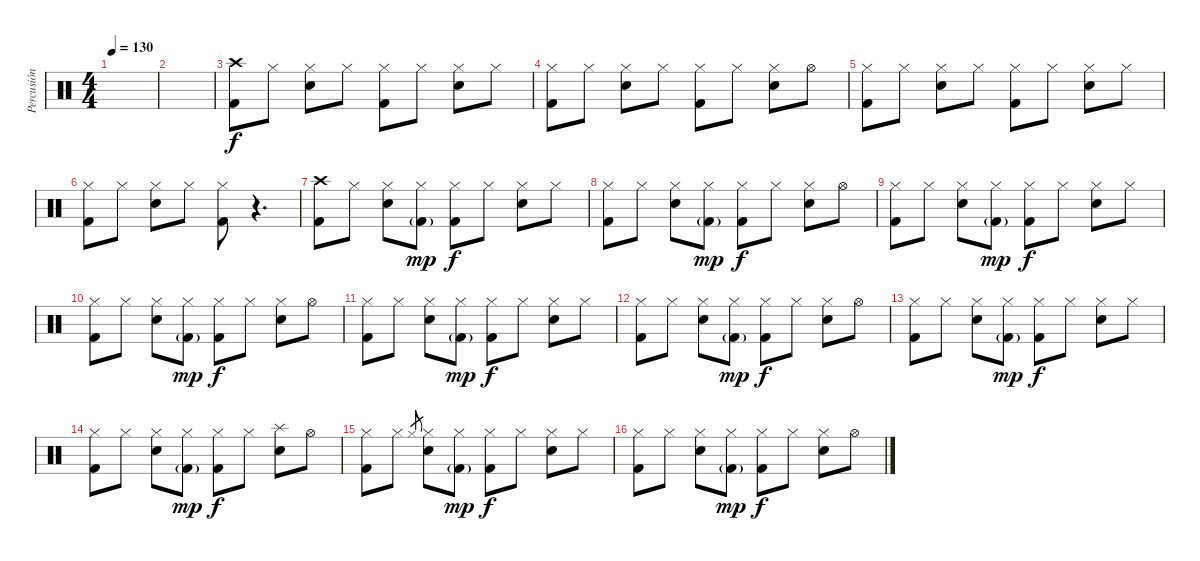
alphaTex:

\track ("Percusión" "Percusión") {instrument percussion}
\staff {score}
\articulation defaults
\ts (4 4)
\tempo 130
\clef neutral
\ks c
|
|
("Crash high (hit)" "Kick (hit) 2").8 "Hi-Hat (closed)".8 ("Hi-Hat (closed)" "Snare (hit) 2").8 "Hi-Hat (closed)".8 ("Hi-Hat (closed)" "Kick (hit) 2").8 "Hi-Hat (closed)".8 ("Hi-Hat (closed)" "Snare (hit) 2").8 "Hi-Hat (closed)".8 |
("Hi-Hat (closed)" "Kick (hit) 2").8 "Hi-Hat (closed)".8 ("Hi-Hat (closed)" "Snare (hit) 2").8 "Hi-Hat (closed)".8 ("Hi-Hat (closed)" "Kick (hit) 2").8 "Hi-Hat (closed)".8 ("Hi-Hat (closed)" "Snare (hit) 2").8 "Hi-Hat (open)".8 |
("Hi-Hat (closed)" "Kick (hit) 2").8 "Hi-Hat (closed)".8 ("Hi-Hat (closed)" "Snare (hit) 2").8 "Hi-Hat (closed)".8 ("Hi-Hat (closed)" "Kick (hit) 2").8 "Hi-Hat (closed)".8 ("Hi-Hat (closed)" "Snare (hit) 2").8 "Hi-Hat (closed)".8 |
("Hi-Hat (closed)" "Kick (hit) 2").8 "Hi-Hat (closed)".8 ("Hi-Hat (closed)" "Snare (hit) 2").8 "Hi-Hat (closed)".8 ("Hi-Hat (closed)" "Kick (hit) 2").8 r.4{d} |
("Crash high (hit)" "Kick (hit) 2").8 "Hi-Hat (closed)".8 ("Hi-Hat (closed)" "Snare (hit) 2").8 ("Hi-Hat (closed)" "Kick (hit) 2"{g}).8{dy mp} ("Hi-Hat (closed)" "Kick (hit) 2").8{dy f} "Hi-Hat (closed)".8 ("Hi-Hat (closed)" "Snare (hit) 2").8 "Hi-Hat (closed)".8 |
("Hi-Hat (closed)" "Kick (hit) 2").8 "Hi-Hat (closed)".8 ("Hi-Hat (closed)" "Snare (hit) 2").8 ("Hi-Hat (closed)" "Kick (hit) 2"{g}).8{dy mp} ("Hi-Hat (closed)" "Kick (hit) 2").8{dy f} "Hi-Hat (closed)".8 ("Hi-Hat (closed)" "Snare (hit) 2").8 "Hi-Hat (open)".8 |
("Hi-Hat (closed)" "Kick (hit) 2").8 "Hi-Hat (closed)".8 ("Hi-Hat (closed)" "Snare (hit) 2").8 ("Hi-Hat (closed)" "Kick (hit) 2"{g}).8{dy mp} ("Hi-Hat (closed)" "Kick (hit) 2").8{dy f} "Hi-Hat (closed)".8 ("Hi-Hat (closed)" "Snare (hit) 2").8 "Hi-Hat (closed)".8 |
("Hi-Hat (closed)" "Kick (hit) 2").8 "Hi-Hat (closed)".8 ("Hi-Hat (closed)" "Snare (hit) 2").8 ("Hi-Hat (closed)" "Kick (hit) 2"{g}).8{dy mp} ("Hi-Hat (closed)" "Kick (hit) 2").8{dy f} "Hi-Hat (closed)".8 ("Hi-Hat (closed)" "Snare (hit) 2").8 "Hi-Hat (open)".8 |
("Hi-Hat (closed)" "Kick (hit) 2").8 "Hi-Hat (closed)".8 ("Hi-Hat (closed)" "Snare (hit) 2").8 ("Hi-Hat (closed)" "Kick (hit) 2"{g}).8{dy mp} ("Hi-Hat (closed)" "Kick (hit) 2").8{dy f} "Hi-Hat (closed)".8 ("Hi-Hat (closed)" "Snare (hit) 2").8 "Hi-Hat (closed)".8 |
("Hi-Hat (closed)" "Kick (hit) 2").8 "Hi-Hat (closed)".8 ("Hi-Hat (closed)" "Snare (hit) 2").8 ("Hi-Hat (closed)" "Kick (hit) 2"{g}).8{dy mp} ("Hi-Hat (closed)" "Kick (hit) 2").8{dy f} "Hi-Hat (closed)".8 ("Hi-Hat (closed)" "Snare (hit) 2").8 "Hi-Hat (open)".8 |
("Hi-Hat (closed)" "Kick (hit) 2").8 "Hi-Hat (closed)".8 ("Hi-Hat (closed)" "Snare (hit) 2").8 ("Hi-Hat (closed)" "Kick (hit) 2"{g}).8{dy mp} ("Hi-Hat (closed)" "Kick (hit) 2").8{dy f} "Hi-Hat (closed)".8 ("Hi-Hat (closed)" "Snare (hit) 2").8 "Hi-Hat (closed)".8 |
("Hi-Hat (closed)" "Kick (hit) 2").8 "Hi-Hat (closed)".8 ("Hi-Hat (closed)" "Snare (hit) 2").8 ("Hi-Hat (closed)" "Kick (hit) 2"{g}).8{dy mp} ("Hi-Hat (closed)" "Kick (hit) 2").8{dy f} "Hi-Hat (closed)".8 ("Splash (hit)" "Snare (hit) 2").8 "Hi-Hat (open)".8 |
("Hi-Hat (closed)" "Kick (hit) 2").8 "Hi-Hat (closed)".8 "Hi-Hat (closed)".8{gr} ("Hi-Hat (closed)" "Snare (hit) 2").8 ("Hi-Hat (closed)" "Kick (hit) 2"{g}).8{dy mp} ("Hi-Hat (closed)" "Kick (hit) 2").8{dy f} "Hi-Hat (closed)".8 ("Hi-Hat (closed)" "Snare (hit) 2").8 "Hi-Hat (closed)".8 |
("Hi-Hat (closed)" "Kick (hit) 2").8 "Hi-Hat (closed)".8 ("Hi-Hat (closed)" "Snare (hit) 2").8 ("Hi-Hat (closed)" "Kick (hit) 2"{g}).8{dy mp} ("Hi-Hat (closed)" "Kick (hit) 2").8{dy f} "Hi-Hat (closed)".8 ("Hi-Hat (closed)" "Snare (hit) 2").8 "Hi-Hat (open)".8
